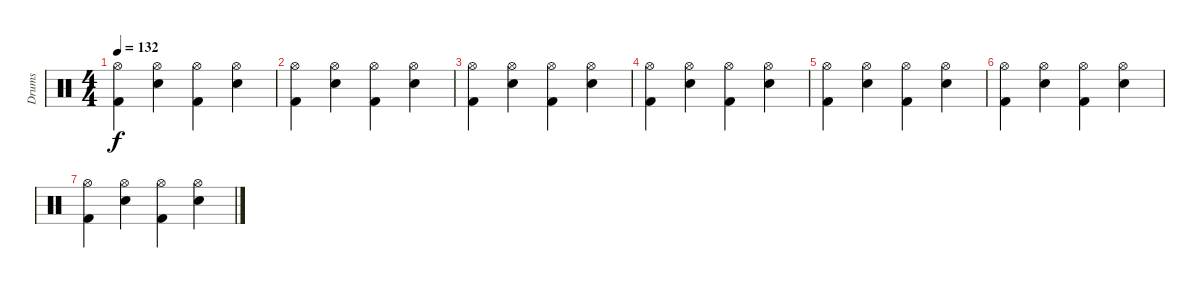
\track ("Drums" "Drums") {instrument percussion}
\staff {score}
\articulation defaults
\ts (4 4)
\tempo 132
\clef neutral
\ks c
("Kick (hit) 2" "Hi-Hat (open)").4{dy f} ("Snare (hit) 2" "Hi-Hat (open)").4 ("Kick (hit) 2" "Hi-Hat (open)").4 ("Snare (hit) 2" "Hi-Hat (open)").4 |
("Kick (hit) 2" "Hi-Hat (open)").4 ("Snare (hit) 2" "Hi-Hat (open)").4 ("Kick (hit) 2" "Hi-Hat (open)").4 ("Snare (hit) 2" "Hi-Hat (open)").4 |
("Kick (hit) 2" "Hi-Hat (open)").4 ("Snare (hit) 2" "Hi-Hat (open)").4 ("Kick (hit) 2" "Hi-Hat (open)").4 ("Snare (hit) 2" "Hi-Hat (open)").4 |
("Kick (hit) 2" "Hi-Hat (open)").4 ("Snare (hit) 2" "Hi-Hat (open)").4 ("Kick (hit) 2" "Hi-Hat (open)").4 ("Snare (hit) 2" "Hi-Hat (open)").4 |
("Kick (hit) 2" "Hi-Hat (open)").4 ("Snare (hit) 2" "Hi-Hat (open)").4 ("Kick (hit) 2" "Hi-Hat (open)").4 ("Snare (hit) 2" "Hi-Hat (open)").4 |
("Kick (hit) 2" "Hi-Hat (open)").4 ("Snare (hit) 2" "Hi-Hat (open)").4 ("Kick (hit) 2" "Hi-Hat (open)").4 ("Snare (hit) 2" "Hi-Hat (open)").4 |
("Kick (hit) 2" "Hi-Hat (open)").4 ("Snare (hit) 2" "Hi-Hat (open)").4 ("Kick (hit) 2" "Hi-Hat (open)").4 ("Snare (hit) 2" "Hi-Hat (open)").4
